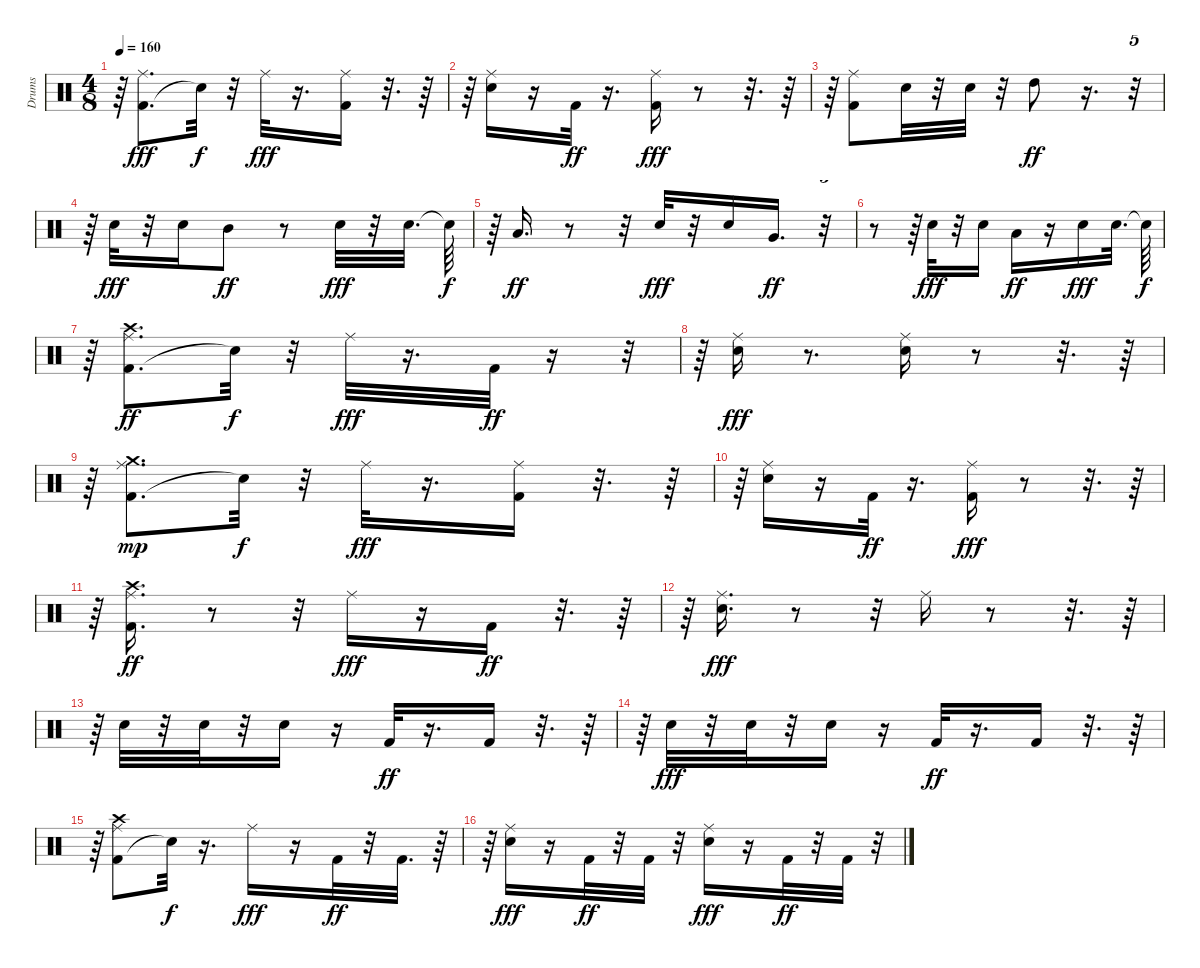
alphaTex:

\track ("Drums" "Drums") {instrument percussion}
\staff {score}
\articulation defaults
\ts (4 8)
\tempo 160
\clef neutral
\ks c
r.64{dy fff} ("Kick (hit) 2" "Ride (middle)").8{d} "Snare (hit)"{t}.32{dy f} r.32 "Ride (middle)".32{dy fff} r.16{d} ("Kick (hit) 2" "Ride (middle)").16 r.32{d} r.64 |
r.64 ("Snare (hit) 2" "Ride (middle)").16 r.16 "Kick (hit) 2".32{dy ff} r.16{d} ("Kick (hit) 2" "Ride (middle)").16{dy fff} r.8 r.32{d} r.64 |
r.64 ("Kick (hit) 2" "Ride (middle)").8 "Snare (hit) 2".32 r.32 "Snare (hit) 2".32 r.32 "High Tom (hit)".8{dy ff} r.16{d} r.32{tu (5 4)} |
r.64 "Snare (hit) 2".32{dy fff} r.32 "Snare (hit) 2".16 "Mid Tom (hit)".8{dy ff} r.8 "Snare (hit) 2".32{dy fff} r.32 "Snare (hit) 2".32{d} "Snare (hit)"{t}.64{dy f} |
r.64 "Low Tom (hit)".16{d dy ff} r.8 r.32 "Snare (hit) 2".32{dy fff} r.32 "Snare (hit) 2".16 "Very Low Tom (hit)".16{d dy ff} r.32{tu (5 4)} |
r.8 r.64 "Snare (hit) 2".32{dy fff} r.32 "Snare (hit) 2".16 "Low Floor Tom (hit)".16{dy ff} r.16 "Snare (hit) 2".16{dy fff} "Snare (hit) 2".32{d} "Snare (hit)"{t}.64{dy f} |
r.64 ("Kick (hit) 2" "Ride (middle)" "Crash high (hit)").8{d dy ff} "Snare (hit)"{t}.32{dy f} r.32 "Ride (middle)".32{dy fff} r.16{d} "Kick (hit) 2".32{dy ff} r.16 r.32{tu (5 4)} |
r.64 ("Snare (hit) 2" "Ride (middle)").16{dy fff} r.8{d} ("Snare (hit) 2" "Ride (middle)").16 r.8 r.32{d} r.64 |
r.64 ("Kick (hit) 2" "Ride (middle)" "Crash medium (hit)").8{d dy mp} "Snare (hit)"{t}.32{dy f} r.32 "Ride (middle)".32{dy fff} r.16{d} ("Kick (hit) 2" "Ride (middle)").16 r.32{d} r.64 |
r.64 ("Snare (hit) 2" "Ride (middle)").16 r.16 "Kick (hit) 2".32{dy ff} r.16{d} ("Kick (hit) 2" "Ride (middle)").16{dy fff} r.8 r.32{d} r.64 |
r.64 ("Kick (hit) 2" "Ride (middle)" "Crash high (hit)").16{d dy ff} r.8 r.32 "Ride (middle)".16{dy fff} r.16 "Kick (hit) 2".16{dy ff} r.32{d} r.64 |
r.64 ("Snare (hit) 2" "Ride (middle)").16{d dy fff} r.8 r.32 "Ride (middle)".16 r.8 r.32{d} r.64 |
r.64 "Snare (hit) 2".32 r.32 "Snare (hit) 2".32 r.32 "Snare (hit) 2".16 r.16 "Kick (hit) 2".32{dy ff} r.16{d} "Kick (hit) 2".16 r.32{d} r.64 |
r.64 "Snare (hit) 2".32{dy fff} r.32 "Snare (hit) 2".32 r.32 "Snare (hit) 2".16 r.16 "Kick (hit) 2".32{dy ff} r.16{d} "Kick (hit) 2".16 r.32{d} r.64 |
r.64 ("Kick (hit) 2" "Ride (middle)" "Crash high (hit)").8 "Snare (hit)"{t}.32{dy f} r.16{d} "Ride (middle)".16{dy fff} r.16 "Kick (hit) 2".32{dy ff} r.32 "Kick (hit) 2".32{d} r.64 |
r.64 ("Snare (hit) 2" "Ride (middle)").16{dy fff} r.16 "Kick (hit) 2".32{dy ff} r.32 "Kick (hit) 2".32 r.32 ("Snare (hit) 2" "Ride (middle)").16{dy fff} r.16 "Kick (hit) 2".32{dy ff} r.32 "Kick (hit) 2".32 r.32{tu (5 4)}
